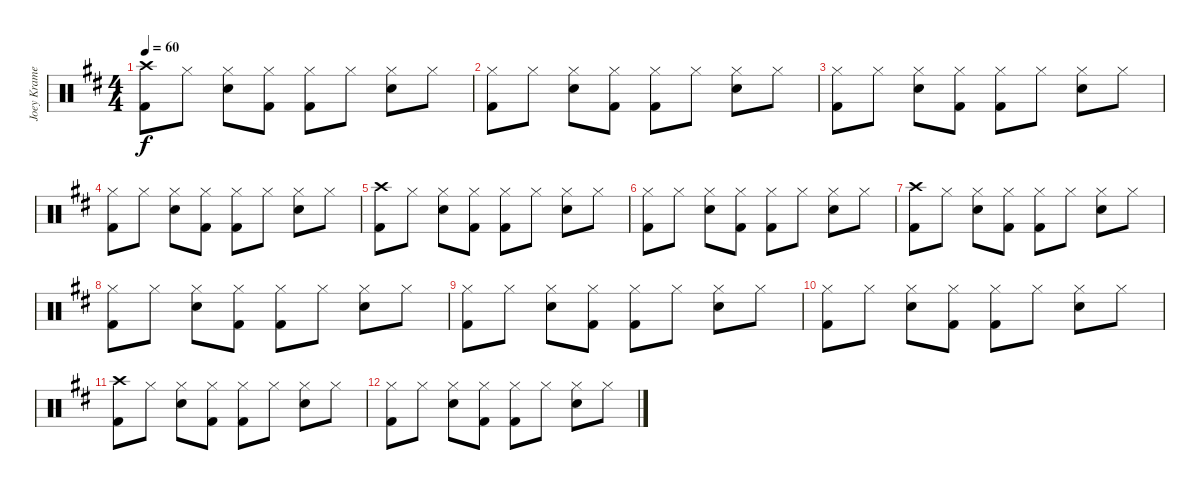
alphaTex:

\track ("Joey Kramer" "Joey Krame") {instrument percussion}
\staff {score}
\articulation defaults
\ts (4 4)
\tempo 60
\clef neutral
\ks d
("Crash high (hit)" "Kick (hit) 2").8{dy f} "Hi-Hat (closed)".8 ("Hi-Hat (closed)" "Electric Snare (hit)").8 ("Hi-Hat (closed)" "Kick (hit) 2").8 ("Hi-Hat (closed)" "Kick (hit) 2").8 "Hi-Hat (closed)".8 ("Hi-Hat (closed)" "Electric Snare (hit)").8 "Hi-Hat (closed)".8 |
("Hi-Hat (closed)" "Kick (hit) 2").8 "Hi-Hat (closed)".8 ("Hi-Hat (closed)" "Electric Snare (hit)").8 ("Hi-Hat (closed)" "Kick (hit) 2").8 ("Hi-Hat (closed)" "Kick (hit) 2").8 "Hi-Hat (closed)".8 ("Hi-Hat (closed)" "Electric Snare (hit)").8 "Hi-Hat (closed)".8 |
("Hi-Hat (closed)" "Kick (hit) 2").8 "Hi-Hat (closed)".8 ("Hi-Hat (closed)" "Electric Snare (hit)").8 ("Hi-Hat (closed)" "Kick (hit) 2").8 ("Hi-Hat (closed)" "Kick (hit) 2").8 "Hi-Hat (closed)".8 ("Hi-Hat (closed)" "Electric Snare (hit)").8 "Hi-Hat (closed)".8 |
("Hi-Hat (closed)" "Kick (hit) 2").8 "Hi-Hat (closed)".8 ("Hi-Hat (closed)" "Electric Snare (hit)").8 ("Hi-Hat (closed)" "Kick (hit) 2").8 ("Hi-Hat (closed)" "Kick (hit) 2").8 "Hi-Hat (closed)".8 ("Hi-Hat (closed)" "Electric Snare (hit)").8 "Hi-Hat (closed)".8 |
("Crash high (hit)" "Kick (hit) 2").8 "Hi-Hat (closed)".8 ("Hi-Hat (closed)" "Electric Snare (hit)").8 ("Hi-Hat (closed)" "Kick (hit) 2").8 ("Hi-Hat (closed)" "Kick (hit) 2").8 "Hi-Hat (closed)".8 ("Hi-Hat (closed)" "Electric Snare (hit)").8 "Hi-Hat (closed)".8 |
("Hi-Hat (closed)" "Kick (hit) 2").8 "Hi-Hat (closed)".8 ("Hi-Hat (closed)" "Electric Snare (hit)").8 ("Hi-Hat (closed)" "Kick (hit) 2").8 ("Hi-Hat (closed)" "Kick (hit) 2").8 "Hi-Hat (closed)".8 ("Hi-Hat (closed)" "Electric Snare (hit)").8 "Hi-Hat (closed)".8 |
("Crash high (hit)" "Kick (hit) 2").8 "Hi-Hat (closed)".8 ("Hi-Hat (closed)" "Electric Snare (hit)").8 ("Hi-Hat (closed)" "Kick (hit) 2").8 ("Hi-Hat (closed)" "Kick (hit) 2").8 "Hi-Hat (closed)".8 ("Hi-Hat (closed)" "Electric Snare (hit)").8 "Hi-Hat (closed)".8 |
("Hi-Hat (closed)" "Kick (hit) 2").8 "Hi-Hat (closed)".8 ("Hi-Hat (closed)" "Electric Snare (hit)").8 ("Hi-Hat (closed)" "Kick (hit) 2").8 ("Hi-Hat (closed)" "Kick (hit) 2").8 "Hi-Hat (closed)".8 ("Hi-Hat (closed)" "Electric Snare (hit)").8 "Hi-Hat (closed)".8 |
("Hi-Hat (closed)" "Kick (hit) 2").8 "Hi-Hat (closed)".8 ("Hi-Hat (closed)" "Electric Snare (hit)").8 ("Hi-Hat (closed)" "Kick (hit) 2").8 ("Hi-Hat (closed)" "Kick (hit) 2").8 "Hi-Hat (closed)".8 ("Hi-Hat (closed)" "Electric Snare (hit)").8 "Hi-Hat (closed)".8 |
("Hi-Hat (closed)" "Kick (hit) 2").8 "Hi-Hat (closed)".8 ("Hi-Hat (closed)" "Electric Snare (hit)").8 ("Hi-Hat (closed)" "Kick (hit) 2").8 ("Hi-Hat (closed)" "Kick (hit) 2").8 "Hi-Hat (closed)".8 ("Hi-Hat (closed)" "Electric Snare (hit)").8 "Hi-Hat (closed)".8 |
("Crash high (hit)" "Kick (hit) 2").8 "Hi-Hat (closed)".8 ("Hi-Hat (closed)" "Electric Snare (hit)").8 ("Hi-Hat (closed)" "Kick (hit) 2").8 ("Hi-Hat (closed)" "Kick (hit) 2").8 "Hi-Hat (closed)".8 ("Hi-Hat (closed)" "Electric Snare (hit)").8 "Hi-Hat (closed)".8 |
("Hi-Hat (closed)" "Kick (hit) 2").8 "Hi-Hat (closed)".8 ("Hi-Hat (closed)" "Electric Snare (hit)").8 ("Hi-Hat (closed)" "Kick (hit) 2").8 ("Hi-Hat (closed)" "Kick (hit) 2").8 "Hi-Hat (closed)".8 ("Hi-Hat (closed)" "Electric Snare (hit)").8 "Hi-Hat (closed)".8
